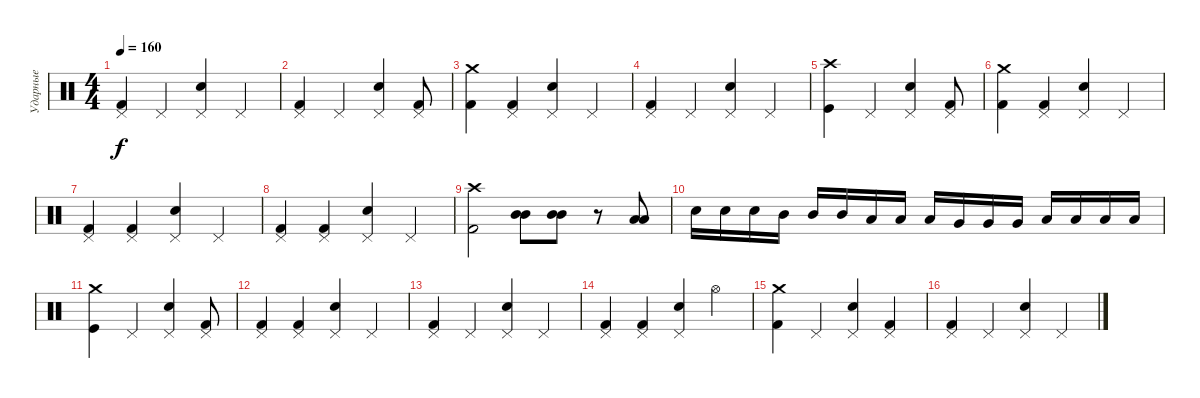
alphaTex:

\track ("Ударные" "Ударные") {instrument percussion}
\staff {score}
\articulation defaults
\ts (4 4)
\tempo 160
\clef neutral
\ks c
("Pedal Hi-Hat (hit)" "Kick (hit) 2").4{dy f} "Pedal Hi-Hat (hit)".4 ("Pedal Hi-Hat (hit)" "Snare (hit) 2").4 "Pedal Hi-Hat (hit)".4 |
("Pedal Hi-Hat (hit)" "Kick (hit) 2").4 "Pedal Hi-Hat (hit)".4 ("Pedal Hi-Hat (hit)" "Snare (hit) 2").4 ("Pedal Hi-Hat (hit)" "Kick (hit) 2").8 |
("Crash medium (hit)" "Kick (hit) 2").4 ("Pedal Hi-Hat (hit)" "Kick (hit) 2").4 ("Pedal Hi-Hat (hit)" "Snare (hit) 2").4 "Pedal Hi-Hat (hit)".4 |
("Pedal Hi-Hat (hit)" "Kick (hit) 2").4 "Pedal Hi-Hat (hit)".4 ("Pedal Hi-Hat (hit)" "Snare (hit) 2").4 "Pedal Hi-Hat (hit)".4 |
("Crash high (hit)" "Kick (hit)").4 "Pedal Hi-Hat (hit)".4 ("Pedal Hi-Hat (hit)" "Snare (hit) 2").4 ("Pedal Hi-Hat (hit)" "Kick (hit) 2").8 |
("Crash medium (hit)" "Kick (hit) 2").4 ("Pedal Hi-Hat (hit)" "Kick (hit) 2").4 ("Pedal Hi-Hat (hit)" "Snare (hit) 2").4 "Pedal Hi-Hat (hit)".4 |
("Pedal Hi-Hat (hit)" "Kick (hit) 2").4 ("Pedal Hi-Hat (hit)" "Kick (hit) 2").4 ("Pedal Hi-Hat (hit)" "Snare (hit) 2").4 "Pedal Hi-Hat (hit)".4 |
("Pedal Hi-Hat (hit)" "Kick (hit) 2").4 ("Pedal Hi-Hat (hit)" "Kick (hit) 2").4 ("Pedal Hi-Hat (hit)" "Snare (hit) 2").4 "Pedal Hi-Hat (hit)".4 |
("Crash high (hit)" "Kick (hit) 2").2 ("Mid Tom (hit)" "Mid Tom (hit)").8 ("Mid Tom (hit)" "Mid Tom (hit)").8 r.8 ("Low Tom (hit)" "Low Tom (hit)").8 |
"Snare (hit) 2".16 "Snare (hit) 2".16 "Snare (hit) 2".16 "Mid Tom (hit)".16 "Mid Tom (hit)".16 "Mid Tom (hit)".16 "Low Tom (hit)".16 "Low Tom (hit)".16 "Low Tom (hit)".16 "Very Low Tom (hit)".16 "Very Low Tom (hit)".16 "Very Low Tom (hit)".16 "Low Floor Tom (hit)".16 "Low Floor Tom (hit)".16 "Low Floor Tom (hit)".16 "Low Floor Tom (hit)".16 |
("Crash medium (hit)" "Kick (hit)").4 "Pedal Hi-Hat (hit)".4 ("Pedal Hi-Hat (hit)" "Snare (hit) 2").4 ("Pedal Hi-Hat (hit)" "Kick (hit) 2").8 |
("Pedal Hi-Hat (hit)" "Kick (hit) 2").4 ("Pedal Hi-Hat (hit)" "Kick (hit) 2").4 ("Pedal Hi-Hat (hit)" "Snare (hit) 2").4 "Pedal Hi-Hat (hit)".4 |
("Pedal Hi-Hat (hit)" "Kick (hit) 2").4 "Pedal Hi-Hat (hit)".4 ("Pedal Hi-Hat (hit)" "Snare (hit) 2").4 "Pedal Hi-Hat (hit)".4 |
("Pedal Hi-Hat (hit)" "Kick (hit) 2").4 ("Pedal Hi-Hat (hit)" "Kick (hit) 2").4 ("Pedal Hi-Hat (hit)" "Snare (hit) 2").4 "Hi-Hat (open)".4 |
("Crash medium (hit)" "Kick (hit) 2").4 "Pedal Hi-Hat (hit)".4 ("Pedal Hi-Hat (hit)" "Snare (hit) 2").4 ("Pedal Hi-Hat (hit)" "Kick (hit) 2").4 |
("Pedal Hi-Hat (hit)" "Kick (hit) 2").4 "Pedal Hi-Hat (hit)".4 ("Pedal Hi-Hat (hit)" "Snare (hit) 2").4 "Pedal Hi-Hat (hit)".4
